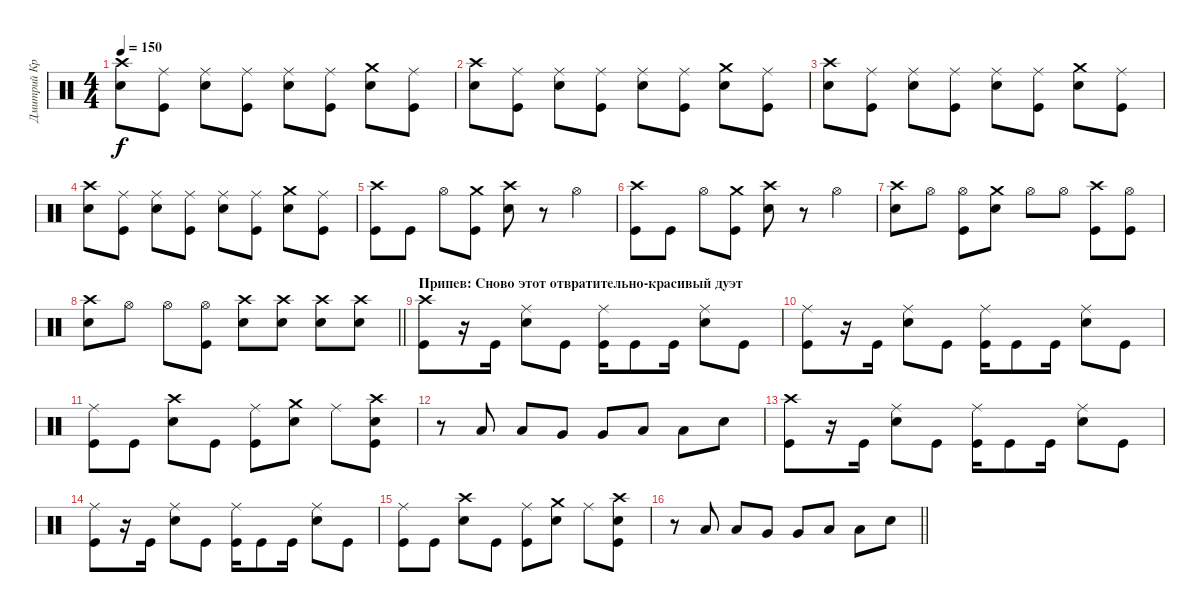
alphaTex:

\track ("Дмитрий Кривенков" "Дмитрий Кр") {instrument percussion}
\staff {score}
\articulation defaults
\ts (4 4)
\tempo 150
\clef neutral
\ks c
("Crash high (hit)" "Electric Snare (hit)").8{dy f} ("Ride (middle)" "Kick (hit)").8 ("Electric Snare (hit)" "Ride (middle)").8 ("Ride (middle)" "Kick (hit)").8 ("Ride (middle)" "Electric Snare (hit)").8 ("Ride (middle)" "Kick (hit)").8 ("Crash medium (hit)" "Electric Snare (hit)").8 ("Ride (middle)" "Kick (hit)").8 |
("Crash high (hit)" "Electric Snare (hit)").8 ("Kick (hit)" "Ride (middle)").8 ("Ride (middle)" "Electric Snare (hit)").8 ("Kick (hit)" "Ride (middle)").8 ("Ride (middle)" "Electric Snare (hit)").8 ("Kick (hit)" "Ride (middle)").8 ("Crash medium (hit)" "Electric Snare (hit)").8 ("Ride (middle)" "Kick (hit)").8 |
("Electric Snare (hit)" "Crash high (hit)").8 ("Ride (middle)" "Kick (hit)").8 ("Electric Snare (hit)" "Ride (middle)").8 ("Ride (middle)" "Kick (hit)").8 ("Ride (middle)" "Electric Snare (hit)").8 ("Ride (middle)" "Kick (hit)").8 ("Crash medium (hit)" "Electric Snare (hit)").8 ("Kick (hit)" "Ride (middle)").8 |
("Crash high (hit)" "Electric Snare (hit)").8 ("Kick (hit)" "Ride (middle)").8 ("Ride (middle)" "Electric Snare (hit)").8 ("Ride (middle)" "Kick (hit)").8 ("Electric Snare (hit)" "Ride (middle)").8 ("Ride (middle)" "Kick (hit)").8 ("Electric Snare (hit)" "Crash medium (hit)").8 ("Kick (hit)" "Ride (middle)").8 |
("Kick (hit)" "Crash high (hit)").8 "Kick (hit)".8 "Hi-Hat (open)".8 ("Crash medium (hit)" "Kick (hit)").8 ("Crash high (hit)" "Electric Snare (hit)").8 r.8 "Hi-Hat (open)".4 |
("Crash high (hit)" "Kick (hit)").8 "Kick (hit)".8 "Hi-Hat (open)".8 ("Kick (hit)" "Crash medium (hit)").8 ("Crash high (hit)" "Electric Snare (hit)").8 r.8 "Hi-Hat (open)".4 |
("Crash high (hit)" "Electric Snare (hit)").8 "Hi-Hat (open)".8 ("Kick (hit)" "Hi-Hat (open)").8 ("Crash medium (hit)" "Electric Snare (hit)").8 "Hi-Hat (open)".8 "Hi-Hat (open)".8 ("Kick (hit)" "Crash high (hit)").8 ("Hi-Hat (open)" "Kick (hit)").8 |
\barLineRight lightlight
("Electric Snare (hit)" "Crash high (hit)").8 "Hi-Hat (open)".8 "Hi-Hat (open)".8 ("Hi-Hat (open)" "Kick (hit)").8 ("Crash high (hit)" "Electric Snare (hit)").8 ("Crash high (hit)" "Electric Snare (hit)").8 ("Electric Snare (hit)" "Crash high (hit)").8 ("Electric Snare (hit)" "Crash high (hit)").8 |
\section ("" "Припев: Сново этот отвратительно-красивый дуэт")
("Crash high (hit)" "Kick (hit)").8 r.16 "Kick (hit)".16 ("Ride (middle)" "Electric Snare (hit)").8 "Kick (hit)".8 ("Ride (middle)" "Kick (hit)").16 "Kick (hit)".8 "Kick (hit)".16 ("Ride (middle)" "Electric Snare (hit)").8 "Kick (hit)".8 |
("Kick (hit)" "Ride (middle)").8 r.16 "Kick (hit)".16 ("Ride (middle)" "Electric Snare (hit)").8 "Kick (hit)".8 ("Ride (middle)" "Kick (hit)").16 "Kick (hit)".8 "Kick (hit)".16 ("Ride (middle)" "Electric Snare (hit)").8 "Kick (hit)".8 |
("Ride (middle)" "Kick (hit)").8 "Kick (hit)".8 ("Crash high (hit)" "Electric Snare (hit)").8 "Kick (hit)".8 ("Ride (middle)" "Kick (hit)").8 ("Electric Snare (hit)" "Crash medium (hit)").8 "Ride (middle)".8 ("Crash high (hit)" "Electric Snare (hit)" "Kick (hit)").8 |
r.8 "Low Tom (hit)".8 "Low Tom (hit)".8 "Very Low Tom (hit)".8 "Very Low Tom (hit)".8 "Low Floor Tom (hit)".8 "Low Floor Tom (hit)".8 "Electric Snare (hit)".8 |
("Crash high (hit)" "Kick (hit)").8 r.16 "Kick (hit)".16 ("Ride (middle)" "Electric Snare (hit)").8 "Kick (hit)".8 ("Ride (middle)" "Kick (hit)").16 "Kick (hit)".8 "Kick (hit)".16 ("Ride (middle)" "Electric Snare (hit)").8 "Kick (hit)".8 |
("Kick (hit)" "Ride (middle)").8 r.16 "Kick (hit)".16 ("Ride (middle)" "Electric Snare (hit)").8 "Kick (hit)".8 ("Ride (middle)" "Kick (hit)").16 "Kick (hit)".8 "Kick (hit)".16 ("Ride (middle)" "Electric Snare (hit)").8 "Kick (hit)".8 |
("Ride (middle)" "Kick (hit)").8 "Kick (hit)".8 ("Crash high (hit)" "Electric Snare (hit)").8 "Kick (hit)".8 ("Ride (middle)" "Kick (hit)").8 ("Electric Snare (hit)" "Crash medium (hit)").8 "Ride (middle)".8 ("Crash high (hit)" "Electric Snare (hit)" "Kick (hit)").8 |
\barLineRight lightlight
r.8 "Low Tom (hit)".8 "Low Tom (hit)".8 "Very Low Tom (hit)".8 "Very Low Tom (hit)".8 "Low Floor Tom (hit)".8 "Low Floor Tom (hit)".8 "Electric Snare (hit)".8
